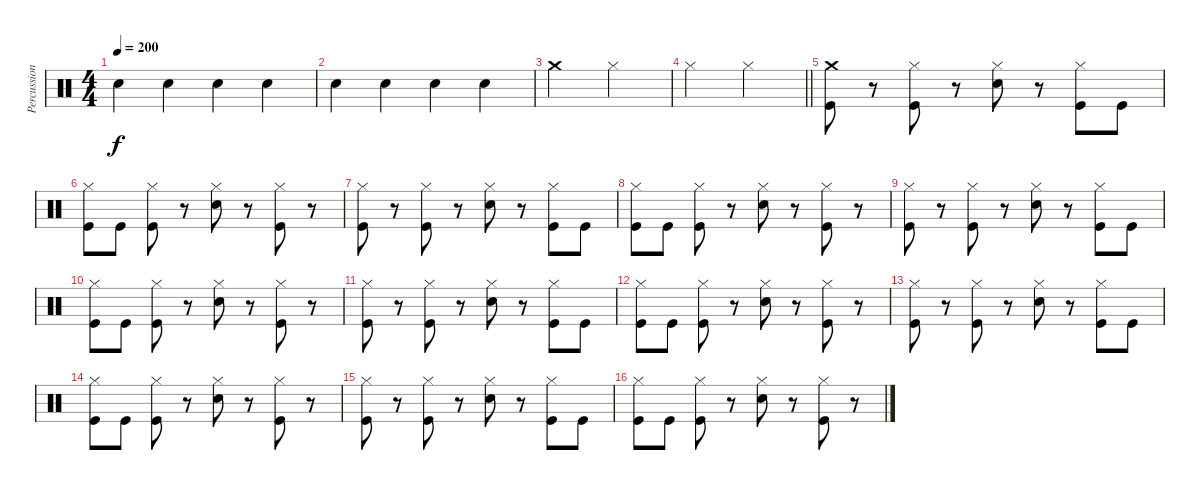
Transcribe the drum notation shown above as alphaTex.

\track ("Percussion" "Percussion") {instrument percussion}
\staff {score}
\articulation defaults
\ts (4 4)
\tempo 200
\clef neutral
\ks c "Snare (hit) 2".4{dy f} "Snare (hit) 2".4 "Snare (hit) 2".4 "Snare (hit) 2".4
|
"Snare (hit) 2".4 "Snare (hit) 2".4 "Snare (hit) 2".4 "Snare (hit) 2".4 |
"Crash medium (hit)".2 "Hi-Hat (closed)".2 |
\barLineRight lightlight "Hi-Hat (closed)".2 "Hi-Hat (closed)".2
|
("Crash medium (hit)" "Kick (hit)").8 r.8 ("Hi-Hat (closed)" "Kick (hit)").8 r.8 ("Hi-Hat (closed)" "Snare (hit) 2").8 r.8 ("Hi-Hat (closed)" "Kick (hit)").8 "Kick (hit)".8 |
("Hi-Hat (closed)" "Kick (hit)").8 "Kick (hit)".8 ("Hi-Hat (closed)" "Kick (hit)").8 r.8 ("Hi-Hat (closed)" "Snare (hit) 2").8 r.8 ("Hi-Hat (closed)" "Kick (hit)").8 r.8 |
("Hi-Hat (closed)" "Kick (hit)").8 r.8 ("Hi-Hat (closed)" "Kick (hit)").8 r.8 ("Hi-Hat (closed)" "Snare (hit) 2").8 r.8 ("Hi-Hat (closed)" "Kick (hit)").8 "Kick (hit)".8 |
("Hi-Hat (closed)" "Kick (hit)").8 "Kick (hit)".8 ("Hi-Hat (closed)" "Kick (hit)").8 r.8 ("Hi-Hat (closed)" "Snare (hit) 2").8 r.8 ("Hi-Hat (closed)" "Kick (hit)").8 r.8 |
("Hi-Hat (closed)" "Kick (hit)").8 r.8 ("Hi-Hat (closed)" "Kick (hit)").8 r.8 ("Hi-Hat (closed)" "Snare (hit) 2").8 r.8 ("Hi-Hat (closed)" "Kick (hit)").8 "Kick (hit)".8 |
("Hi-Hat (closed)" "Kick (hit)").8 "Kick (hit)".8 ("Hi-Hat (closed)" "Kick (hit)").8 r.8 ("Hi-Hat (closed)" "Snare (hit) 2").8 r.8 ("Hi-Hat (closed)" "Kick (hit)").8 r.8 |
("Hi-Hat (closed)" "Kick (hit)").8 r.8 ("Hi-Hat (closed)" "Kick (hit)").8 r.8 ("Hi-Hat (closed)" "Snare (hit) 2").8 r.8 ("Hi-Hat (closed)" "Kick (hit)").8 "Kick (hit)".8 |
("Hi-Hat (closed)" "Kick (hit)").8 "Kick (hit)".8 ("Hi-Hat (closed)" "Kick (hit)").8 r.8 ("Hi-Hat (closed)" "Snare (hit) 2").8 r.8 ("Hi-Hat (closed)" "Kick (hit)").8 r.8 |
("Hi-Hat (closed)" "Kick (hit)").8 r.8 ("Hi-Hat (closed)" "Kick (hit)").8 r.8 ("Hi-Hat (closed)" "Snare (hit) 2").8 r.8 ("Hi-Hat (closed)" "Kick (hit)").8 "Kick (hit)".8 |
("Hi-Hat (closed)" "Kick (hit)").8 "Kick (hit)".8 ("Hi-Hat (closed)" "Kick (hit)").8 r.8 ("Hi-Hat (closed)" "Snare (hit) 2").8 r.8 ("Hi-Hat (closed)" "Kick (hit)").8 r.8 |
("Hi-Hat (closed)" "Kick (hit)").8 r.8 ("Hi-Hat (closed)" "Kick (hit)").8 r.8 ("Hi-Hat (closed)" "Snare (hit) 2").8 r.8 ("Hi-Hat (closed)" "Kick (hit)").8 "Kick (hit)".8 |
("Hi-Hat (closed)" "Kick (hit)").8 "Kick (hit)".8 ("Hi-Hat (closed)" "Kick (hit)").8 r.8 ("Hi-Hat (closed)" "Snare (hit) 2").8 r.8 ("Hi-Hat (closed)" "Kick (hit)").8 r.8
